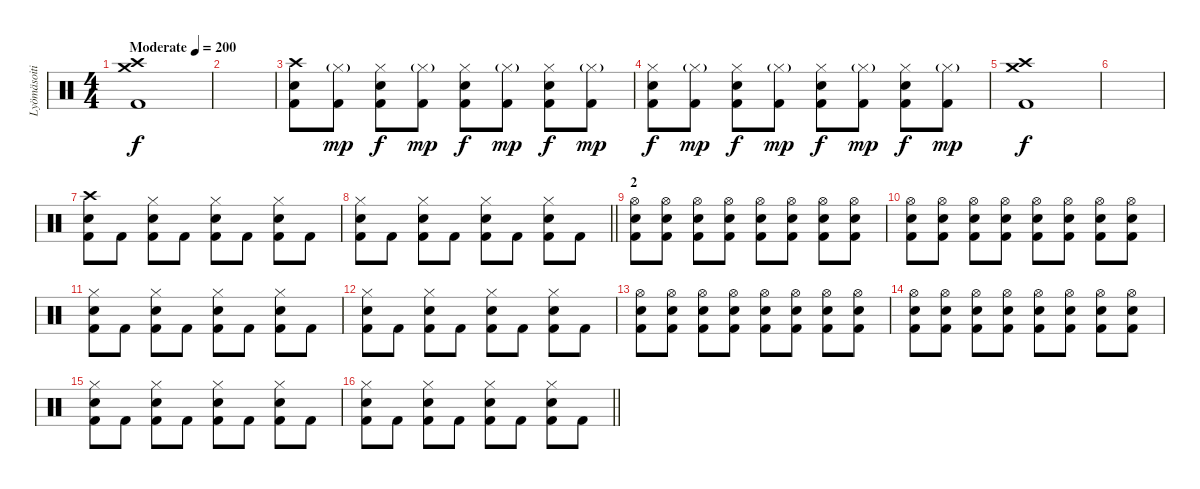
\track ("Lyömäsoitin" "Lyömäsoiti") {instrument percussion}
\staff {score}
\articulation defaults
\ts (4 4)
\tempo (200 "Moderate")
\tempo 208
\tempo (200 "Moderate")
\clef neutral
\ks c
("Crash high (hit)" "Crash medium (hit)" "Kick (hit) 2").1{dy f} |
|
("Crash high (hit)" "Snare (hit) 2" "Kick (hit) 2").8 ("Hi-Hat (closed)"{g} "Kick (hit) 2").8{dy mp} ("Hi-Hat (closed)" "Snare (hit) 2" "Kick (hit) 2").8{dy f} ("Hi-Hat (closed)"{g} "Kick (hit) 2").8{dy mp} ("Hi-Hat (closed)" "Snare (hit) 2" "Kick (hit) 2").8{dy f} ("Hi-Hat (closed)"{g} "Kick (hit) 2").8{dy mp} ("Hi-Hat (closed)" "Snare (hit) 2" "Kick (hit) 2").8{dy f} ("Hi-Hat (closed)"{g} "Kick (hit) 2").8{dy mp} |
("Hi-Hat (closed)" "Snare (hit) 2" "Kick (hit) 2").8{dy f} ("Hi-Hat (closed)"{g} "Kick (hit) 2").8{dy mp} ("Hi-Hat (closed)" "Snare (hit) 2" "Kick (hit) 2").8{dy f} ("Hi-Hat (closed)"{g} "Kick (hit) 2").8{dy mp} ("Hi-Hat (closed)" "Snare (hit) 2" "Kick (hit) 2").8{dy f} ("Hi-Hat (closed)"{g} "Kick (hit) 2").8{dy mp} ("Hi-Hat (closed)" "Snare (hit) 2" "Kick (hit) 2").8{dy f} ("Hi-Hat (closed)"{g} "Kick (hit) 2").8{dy mp} |
("Crash high (hit)" "Crash medium (hit)" "Kick (hit) 2").1{dy f} |
|
("Crash high (hit)" "Snare (hit) 2" "Kick (hit) 2").8 "Kick (hit) 2".8 ("Hi-Hat (closed)" "Snare (hit) 2" "Kick (hit) 2").8 "Kick (hit) 2".8 ("Hi-Hat (closed)" "Snare (hit) 2" "Kick (hit) 2").8 "Kick (hit) 2".8 ("Hi-Hat (closed)" "Snare (hit) 2" "Kick (hit) 2").8 "Kick (hit) 2".8 |
\barLineRight lightlight
("Hi-Hat (closed)" "Snare (hit) 2" "Kick (hit) 2").8 "Kick (hit) 2".8 ("Hi-Hat (closed)" "Snare (hit) 2" "Kick (hit) 2").8 "Kick (hit) 2".8 ("Hi-Hat (closed)" "Snare (hit) 2" "Kick (hit) 2").8 "Kick (hit) 2".8 ("Hi-Hat (closed)" "Snare (hit) 2" "Kick (hit) 2").8 "Kick (hit) 2".8 |
\section ("" "2")
("Hi-Hat (open)" "Snare (hit) 2" "Kick (hit) 2").8 ("Hi-Hat (open)" "Snare (hit) 2" "Kick (hit) 2").8 ("Hi-Hat (open)" "Snare (hit) 2" "Kick (hit) 2").8 ("Hi-Hat (open)" "Snare (hit) 2" "Kick (hit) 2").8 ("Hi-Hat (open)" "Snare (hit) 2" "Kick (hit) 2").8 ("Hi-Hat (open)" "Snare (hit) 2" "Kick (hit) 2").8 ("Hi-Hat (open)" "Snare (hit) 2" "Kick (hit) 2").8 ("Hi-Hat (open)" "Snare (hit) 2" "Kick (hit) 2").8 |
("Hi-Hat (open)" "Snare (hit) 2" "Kick (hit) 2").8 ("Hi-Hat (open)" "Snare (hit) 2" "Kick (hit) 2").8 ("Hi-Hat (open)" "Snare (hit) 2" "Kick (hit) 2").8 ("Hi-Hat (open)" "Snare (hit) 2" "Kick (hit) 2").8 ("Hi-Hat (open)" "Snare (hit) 2" "Kick (hit) 2").8 ("Hi-Hat (open)" "Snare (hit) 2" "Kick (hit) 2").8 ("Hi-Hat (open)" "Snare (hit) 2" "Kick (hit) 2").8 ("Hi-Hat (open)" "Snare (hit) 2" "Kick (hit) 2").8 |
("Hi-Hat (closed)" "Snare (hit) 2" "Kick (hit) 2").8 "Kick (hit) 2".8 ("Hi-Hat (closed)" "Snare (hit) 2" "Kick (hit) 2").8 "Kick (hit) 2".8 ("Hi-Hat (closed)" "Snare (hit) 2" "Kick (hit) 2").8 "Kick (hit) 2".8 ("Hi-Hat (closed)" "Snare (hit) 2" "Kick (hit) 2").8 "Kick (hit) 2".8 |
("Hi-Hat (closed)" "Snare (hit) 2" "Kick (hit) 2").8 "Kick (hit) 2".8 ("Hi-Hat (closed)" "Snare (hit) 2" "Kick (hit) 2").8 "Kick (hit) 2".8 ("Hi-Hat (closed)" "Snare (hit) 2" "Kick (hit) 2").8 "Kick (hit) 2".8 ("Hi-Hat (closed)" "Snare (hit) 2" "Kick (hit) 2").8 "Kick (hit) 2".8 |
("Hi-Hat (open)" "Snare (hit) 2" "Kick (hit) 2").8 ("Hi-Hat (open)" "Snare (hit) 2" "Kick (hit) 2").8 ("Hi-Hat (open)" "Snare (hit) 2" "Kick (hit) 2").8 ("Hi-Hat (open)" "Snare (hit) 2" "Kick (hit) 2").8 ("Hi-Hat (open)" "Snare (hit) 2" "Kick (hit) 2").8 ("Hi-Hat (open)" "Snare (hit) 2" "Kick (hit) 2").8 ("Hi-Hat (open)" "Snare (hit) 2" "Kick (hit) 2").8 ("Hi-Hat (open)" "Snare (hit) 2" "Kick (hit) 2").8 |
("Hi-Hat (open)" "Snare (hit) 2" "Kick (hit) 2").8 ("Hi-Hat (open)" "Snare (hit) 2" "Kick (hit) 2").8 ("Hi-Hat (open)" "Snare (hit) 2" "Kick (hit) 2").8 ("Hi-Hat (open)" "Snare (hit) 2" "Kick (hit) 2").8 ("Hi-Hat (open)" "Snare (hit) 2" "Kick (hit) 2").8 ("Hi-Hat (open)" "Snare (hit) 2" "Kick (hit) 2").8 ("Hi-Hat (open)" "Snare (hit) 2" "Kick (hit) 2").8 ("Hi-Hat (open)" "Snare (hit) 2" "Kick (hit) 2").8 |
("Hi-Hat (closed)" "Snare (hit) 2" "Kick (hit) 2").8 "Kick (hit) 2".8 ("Hi-Hat (closed)" "Snare (hit) 2" "Kick (hit) 2").8 "Kick (hit) 2".8 ("Hi-Hat (closed)" "Snare (hit) 2" "Kick (hit) 2").8 "Kick (hit) 2".8 ("Hi-Hat (closed)" "Snare (hit) 2" "Kick (hit) 2").8 "Kick (hit) 2".8 |
\barLineRight lightlight
("Hi-Hat (closed)" "Snare (hit) 2" "Kick (hit) 2").8 "Kick (hit) 2".8 ("Hi-Hat (closed)" "Snare (hit) 2" "Kick (hit) 2").8 "Kick (hit) 2".8 ("Hi-Hat (closed)" "Snare (hit) 2" "Kick (hit) 2").8 "Kick (hit) 2".8 ("Hi-Hat (closed)" "Snare (hit) 2" "Kick (hit) 2").8 "Kick (hit) 2".8
